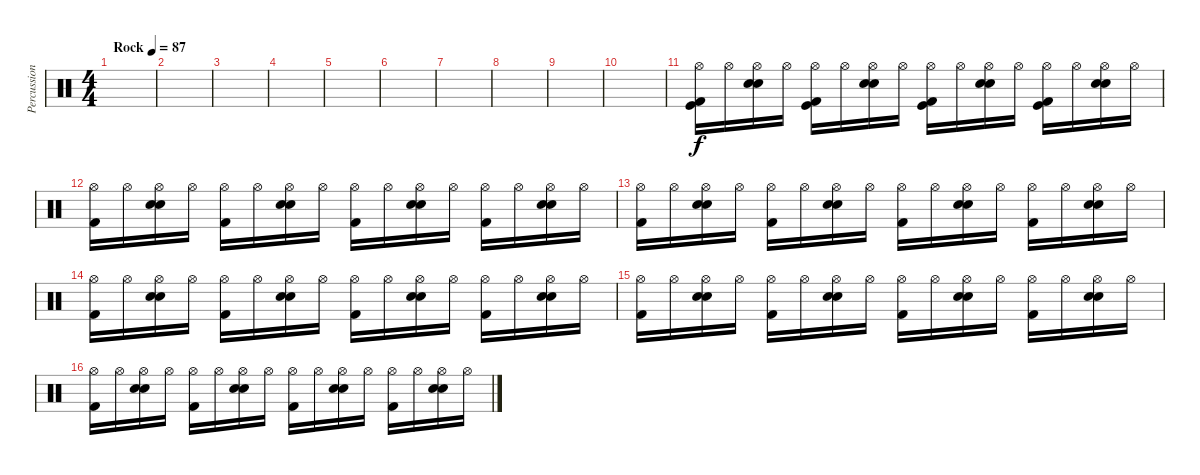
\track ("Percussion" "Percussion") {instrument percussion}
\staff {score}
\articulation defaults
\ts (4 4)
\tempo (87 "Rock")
\clef neutral
\ks c
|
|
|
|
|
|
|
|
|
|
("Hi-Hat (open)" "Kick (hit)" "Kick (hit) 2").16 "Hi-Hat (open)".16 ("Hi-Hat (open)" "Snare (hit) 2" "Electric Snare (hit)").16 "Hi-Hat (open)".16 ("Hi-Hat (open)" "Kick (hit)" "Kick (hit) 2").16 "Hi-Hat (open)".16 ("Hi-Hat (open)" "Snare (hit) 2" "Electric Snare (hit)").16 "Hi-Hat (open)".16 ("Hi-Hat (open)" "Kick (hit)" "Kick (hit) 2").16 "Hi-Hat (open)".16 ("Hi-Hat (open)" "Snare (hit) 2" "Electric Snare (hit)").16 "Hi-Hat (open)".16 ("Hi-Hat (open)" "Kick (hit)" "Kick (hit) 2").16 "Hi-Hat (open)".16 ("Hi-Hat (open)" "Snare (hit) 2" "Electric Snare (hit)").16 "Hi-Hat (open)".16 |
("Hi-Hat (open)" "Kick (hit) 2").16 "Hi-Hat (open)".16 ("Hi-Hat (open)" "Snare (hit) 2" "Electric Snare (hit)").16 "Hi-Hat (open)".16 ("Hi-Hat (open)" "Kick (hit) 2").16 "Hi-Hat (open)".16 ("Hi-Hat (open)" "Snare (hit) 2" "Electric Snare (hit)").16 "Hi-Hat (open)".16 ("Hi-Hat (open)" "Kick (hit) 2").16 "Hi-Hat (open)".16 ("Hi-Hat (open)" "Snare (hit) 2" "Electric Snare (hit)").16 "Hi-Hat (open)".16 ("Hi-Hat (open)" "Kick (hit) 2").16 "Hi-Hat (open)".16 ("Hi-Hat (open)" "Snare (hit) 2" "Electric Snare (hit)").16 "Hi-Hat (open)".16 |
("Hi-Hat (open)" "Kick (hit) 2").16 "Hi-Hat (open)".16 ("Hi-Hat (open)" "Snare (hit) 2" "Electric Snare (hit)").16 "Hi-Hat (open)".16 ("Hi-Hat (open)" "Kick (hit) 2").16 "Hi-Hat (open)".16 ("Hi-Hat (open)" "Snare (hit) 2" "Electric Snare (hit)").16 "Hi-Hat (open)".16 ("Hi-Hat (open)" "Kick (hit) 2").16 "Hi-Hat (open)".16 ("Hi-Hat (open)" "Snare (hit) 2" "Electric Snare (hit)").16 "Hi-Hat (open)".16 ("Hi-Hat (open)" "Kick (hit) 2").16 "Hi-Hat (open)".16 ("Hi-Hat (open)" "Snare (hit) 2" "Electric Snare (hit)").16 "Hi-Hat (open)".16 |
("Hi-Hat (open)" "Kick (hit) 2").16 "Hi-Hat (open)".16 ("Hi-Hat (open)" "Snare (hit) 2" "Electric Snare (hit)").16 "Hi-Hat (open)".16 ("Hi-Hat (open)" "Kick (hit) 2").16 "Hi-Hat (open)".16 ("Hi-Hat (open)" "Snare (hit) 2" "Electric Snare (hit)").16 "Hi-Hat (open)".16 ("Hi-Hat (open)" "Kick (hit) 2").16 "Hi-Hat (open)".16 ("Hi-Hat (open)" "Snare (hit) 2" "Electric Snare (hit)").16 "Hi-Hat (open)".16 ("Hi-Hat (open)" "Kick (hit) 2").16 "Hi-Hat (open)".16 ("Hi-Hat (open)" "Snare (hit) 2" "Electric Snare (hit)").16 "Hi-Hat (open)".16 |
("Hi-Hat (open)" "Kick (hit) 2").16 "Hi-Hat (open)".16 ("Hi-Hat (open)" "Snare (hit) 2" "Electric Snare (hit)").16 "Hi-Hat (open)".16 ("Hi-Hat (open)" "Kick (hit) 2").16 "Hi-Hat (open)".16 ("Hi-Hat (open)" "Snare (hit) 2" "Electric Snare (hit)").16 "Hi-Hat (open)".16 ("Hi-Hat (open)" "Kick (hit) 2").16 "Hi-Hat (open)".16 ("Hi-Hat (open)" "Snare (hit) 2" "Electric Snare (hit)").16 "Hi-Hat (open)".16 ("Hi-Hat (open)" "Kick (hit) 2").16 "Hi-Hat (open)".16 ("Hi-Hat (open)" "Snare (hit) 2" "Electric Snare (hit)").16 "Hi-Hat (open)".16 |
("Hi-Hat (open)" "Kick (hit) 2").16 "Hi-Hat (open)".16 ("Hi-Hat (open)" "Snare (hit) 2" "Electric Snare (hit)").16 "Hi-Hat (open)".16 ("Hi-Hat (open)" "Kick (hit) 2").16 "Hi-Hat (open)".16 ("Hi-Hat (open)" "Snare (hit) 2" "Electric Snare (hit)").16 "Hi-Hat (open)".16 ("Hi-Hat (open)" "Kick (hit) 2").16 "Hi-Hat (open)".16 ("Hi-Hat (open)" "Snare (hit) 2" "Electric Snare (hit)").16 "Hi-Hat (open)".16 ("Hi-Hat (open)" "Kick (hit) 2").16 "Hi-Hat (open)".16 ("Hi-Hat (open)" "Snare (hit) 2" "Electric Snare (hit)").16 "Hi-Hat (open)".16
